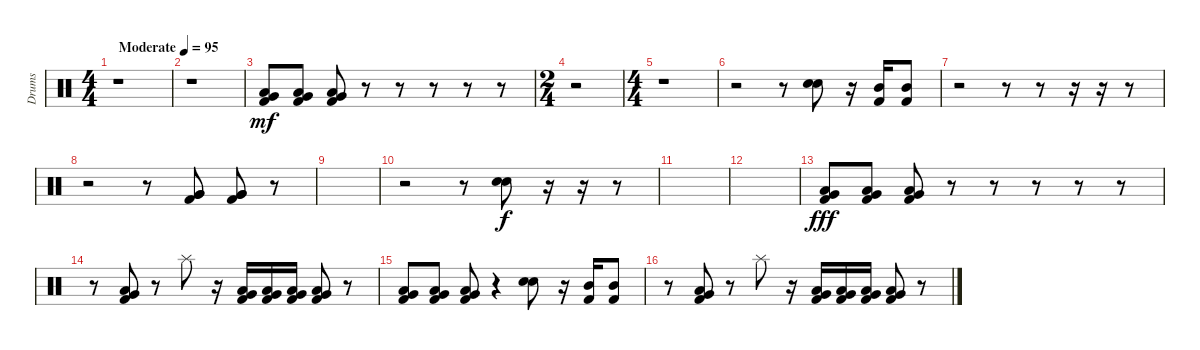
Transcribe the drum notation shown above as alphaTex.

\track ("Drums" "Drums") {instrument percussion}
\staff {score}
\articulation defaults
\ts (4 4)
\tempo (95 "Moderate")
\clef neutral
\ks c
r.1{dy mf} |
r.1 |
("Low Floor Tom (hit)" "Very Low Tom (hit)" "Kick (hit) 2").8 ("Low Floor Tom (hit)" "Very Low Tom (hit)" "Kick (hit) 2").8 ("Low Floor Tom (hit)" "Very Low Tom (hit)" "Kick (hit) 2").8 r.8 r.8 r.8 r.8 r.8 |
\ts (2 4)
r.2 |
\ts (4 4)
r.1 |
r.2 r.8 ("Electric Snare (hit)" "Electric Snare (hit)").8{bd 60} r.16 ("Mid Tom (hit)" "Kick (hit) 2").16 ("Mid Tom (hit)" "Kick (hit) 2").8 |
r.2 r.8 r.8 r.16 r.16 r.8 |
r.2 r.8 ("Very Low Tom (hit)" "Very Low Tom (hit)" "Kick (hit) 2").8 ("Very Low Tom (hit)" "Very Low Tom (hit)" "Kick (hit) 2").8 r.8 |
|
r.2 r.8 ("Electric Snare (hit)" "Electric Snare (hit)").8{bd 60 dy f} r.16 r.16 r.8 |
|
|
("Low Floor Tom (hit)" "Very Low Tom (hit)" "Kick (hit) 2").8{dy fff} ("Low Floor Tom (hit)" "Very Low Tom (hit)" "Kick (hit) 2").8 ("Low Floor Tom (hit)" "Very Low Tom (hit)" "Kick (hit) 2").8 r.8 r.8 r.8 r.8 r.8 |
r.8 ("Low Floor Tom (hit)" "Very Low Tom (hit)" "Kick (hit) 2").8 r.8 "Splash (hit)".8 r.16 ("Low Floor Tom (hit)" "Very Low Tom (hit)" "Kick (hit) 2").16 ("Low Floor Tom (hit)" "Very Low Tom (hit)" "Kick (hit) 2").16 ("Low Floor Tom (hit)" "Very Low Tom (hit)" "Kick (hit) 2").16 ("Low Floor Tom (hit)" "Very Low Tom (hit)" "Kick (hit) 2").8 r.8 |
("Low Floor Tom (hit)" "Very Low Tom (hit)" "Kick (hit) 2").8 ("Low Floor Tom (hit)" "Very Low Tom (hit)" "Kick (hit) 2").8 ("Low Floor Tom (hit)" "Very Low Tom (hit)" "Kick (hit) 2").8 r.4 ("Electric Snare (hit)" "Electric Snare (hit)").8{bd 60} r.16 ("Mid Tom (hit)" "Kick (hit) 2").16 ("Mid Tom (hit)" "Kick (hit) 2").8 |
r.8 ("Low Floor Tom (hit)" "Very Low Tom (hit)" "Kick (hit) 2").8 r.8 "Splash (hit)".8 r.16 ("Low Floor Tom (hit)" "Very Low Tom (hit)" "Kick (hit) 2").16 ("Low Floor Tom (hit)" "Very Low Tom (hit)" "Kick (hit) 2").16 ("Low Floor Tom (hit)" "Very Low Tom (hit)" "Kick (hit) 2").16 ("Low Floor Tom (hit)" "Very Low Tom (hit)" "Kick (hit) 2").8 r.8
